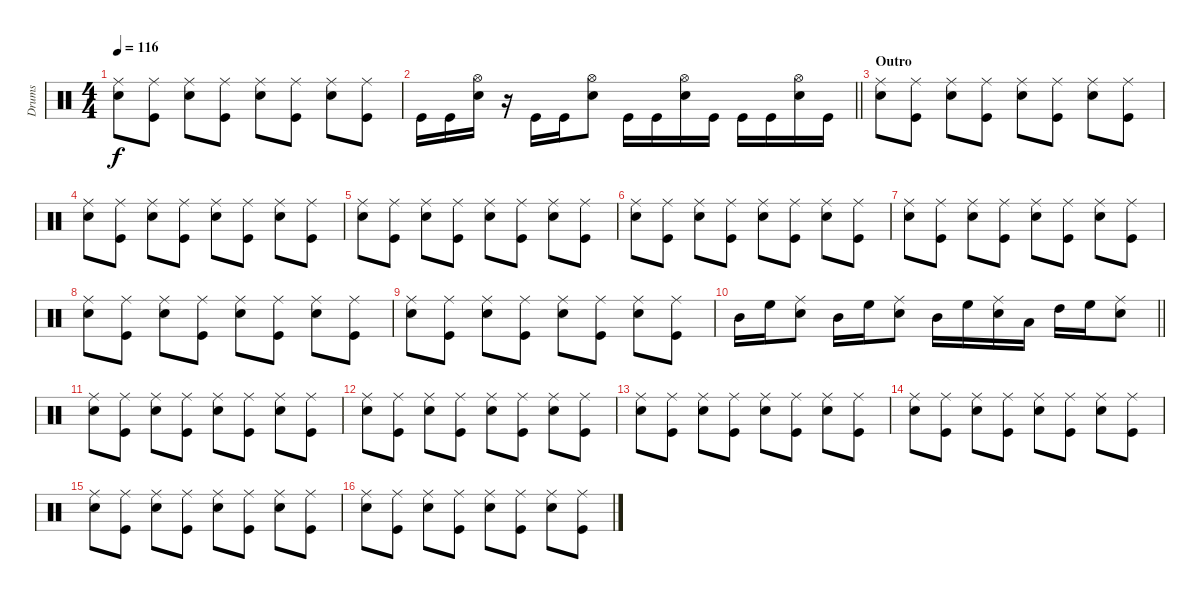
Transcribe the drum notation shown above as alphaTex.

\track ("Drums" "Drums") {instrument percussion}
\staff {score}
\articulation defaults
\ts (4 4)
\tempo 116
\clef neutral
\ks c
("Ride (middle)" "Snare (hit) 2").8{dy f} ("Ride (middle)" "Kick (hit)").8 ("Ride (middle)" "Snare (hit) 2").8 ("Ride (middle)" "Kick (hit)").8 ("Ride (middle)" "Snare (hit) 2").8 ("Ride (middle)" "Kick (hit)").8 ("Ride (middle)" "Snare (hit) 2").8 ("Ride (middle)" "Kick (hit)").8 |
\barLineRight lightlight "Kick (hit)".16 "Kick (hit)".16
("Hi-Hat (open)" "Snare (hit) 2").16 r.16 "Kick (hit)".16 "Kick (hit)".16 ("Hi-Hat (open)" "Snare (hit) 2").8 "Kick (hit)".16 "Kick (hit)".16 ("Hi-Hat (open)" "Snare (hit) 2").16 "Kick (hit)".16 "Kick (hit)".16 "Kick (hit)".16 ("Hi-Hat (open)" "Snare (hit) 2").16 "Kick (hit)".16 |
\section ("" "Outro")
("Ride (middle)" "Snare (hit) 2").8 ("Ride (middle)" "Kick (hit)").8 ("Ride (middle)" "Snare (hit) 2").8 ("Ride (middle)" "Kick (hit)").8 ("Ride (middle)" "Snare (hit) 2").8 ("Ride (middle)" "Kick (hit)").8 ("Ride (middle)" "Snare (hit) 2").8 ("Ride (middle)" "Kick (hit)").8 |
("Ride (middle)" "Snare (hit) 2").8 ("Ride (middle)" "Kick (hit)").8 ("Ride (middle)" "Snare (hit) 2").8 ("Ride (middle)" "Kick (hit)").8 ("Ride (middle)" "Snare (hit) 2").8 ("Ride (middle)" "Kick (hit)").8 ("Ride (middle)" "Snare (hit) 2").8 ("Ride (middle)" "Kick (hit)").8 |
("Ride (middle)" "Snare (hit) 2").8 ("Ride (middle)" "Kick (hit)").8 ("Ride (middle)" "Snare (hit) 2").8 ("Ride (middle)" "Kick (hit)").8 ("Ride (middle)" "Snare (hit) 2").8 ("Ride (middle)" "Kick (hit)").8 ("Ride (middle)" "Snare (hit) 2").8 ("Ride (middle)" "Kick (hit)").8 |
("Ride (middle)" "Snare (hit) 2").8 ("Ride (middle)" "Kick (hit)").8 ("Ride (middle)" "Snare (hit) 2").8 ("Ride (middle)" "Kick (hit)").8 ("Ride (middle)" "Snare (hit) 2").8 ("Ride (middle)" "Kick (hit)").8 ("Ride (middle)" "Snare (hit) 2").8 ("Ride (middle)" "Kick (hit)").8 |
("Ride (middle)" "Snare (hit) 2").8 ("Ride (middle)" "Kick (hit)").8 ("Ride (middle)" "Snare (hit) 2").8 ("Ride (middle)" "Kick (hit)").8 ("Ride (middle)" "Snare (hit) 2").8 ("Ride (middle)" "Kick (hit)").8 ("Ride (middle)" "Snare (hit) 2").8 ("Ride (middle)" "Kick (hit)").8 |
("Ride (middle)" "Snare (hit) 2").8 ("Ride (middle)" "Kick (hit)").8 ("Ride (middle)" "Snare (hit) 2").8 ("Ride (middle)" "Kick (hit)").8 ("Ride (middle)" "Snare (hit) 2").8 ("Ride (middle)" "Kick (hit)").8 ("Ride (middle)" "Snare (hit) 2").8 ("Ride (middle)" "Kick (hit)").8 |
("Ride (middle)" "Snare (hit) 2").8 ("Ride (middle)" "Kick (hit)").8 ("Ride (middle)" "Snare (hit) 2").8 ("Ride (middle)" "Kick (hit)").8 ("Ride (middle)" "Snare (hit) 2").8 ("Ride (middle)" "Kick (hit)").8 ("Ride (middle)" "Snare (hit) 2").8 ("Ride (middle)" "Kick (hit)").8 |
\barLineRight lightlight "Mid Tom (hit)".16 "High Floor Tom (hit)".16
("Ride (middle)" "Snare (hit) 2").8 "Mid Tom (hit)".16 "High Floor Tom (hit)".16 ("Ride (middle)" "Snare (hit) 2").8 "Mid Tom (hit)".16 "High Floor Tom (hit)".16 ("Ride (middle)" "Snare (hit) 2").16 "Low Tom (hit)".16 "High Tom (hit)".16 "High Floor Tom (hit)".16 ("Ride (middle)" "Snare (hit) 2").8 |
("Ride (middle)" "Snare (hit) 2").8 ("Ride (middle)" "Kick (hit)").8 ("Ride (middle)" "Snare (hit) 2").8 ("Ride (middle)" "Kick (hit)").8 ("Ride (middle)" "Snare (hit) 2").8 ("Ride (middle)" "Kick (hit)").8 ("Ride (middle)" "Snare (hit) 2").8 ("Ride (middle)" "Kick (hit)").8 |
("Ride (middle)" "Snare (hit) 2").8 ("Ride (middle)" "Kick (hit)").8 ("Ride (middle)" "Snare (hit) 2").8 ("Ride (middle)" "Kick (hit)").8 ("Ride (middle)" "Snare (hit) 2").8 ("Ride (middle)" "Kick (hit)").8 ("Ride (middle)" "Snare (hit) 2").8 ("Ride (middle)" "Kick (hit)").8 |
("Ride (middle)" "Snare (hit) 2").8 ("Ride (middle)" "Kick (hit)").8 ("Ride (middle)" "Snare (hit) 2").8 ("Ride (middle)" "Kick (hit)").8 ("Ride (middle)" "Snare (hit) 2").8 ("Ride (middle)" "Kick (hit)").8 ("Ride (middle)" "Snare (hit) 2").8 ("Ride (middle)" "Kick (hit)").8 |
("Ride (middle)" "Snare (hit) 2").8 ("Ride (middle)" "Kick (hit)").8 ("Ride (middle)" "Snare (hit) 2").8 ("Ride (middle)" "Kick (hit)").8 ("Ride (middle)" "Snare (hit) 2").8 ("Ride (middle)" "Kick (hit)").8 ("Ride (middle)" "Snare (hit) 2").8 ("Ride (middle)" "Kick (hit)").8 |
("Ride (middle)" "Snare (hit) 2").8 ("Ride (middle)" "Kick (hit)").8 ("Ride (middle)" "Snare (hit) 2").8 ("Ride (middle)" "Kick (hit)").8 ("Ride (middle)" "Snare (hit) 2").8 ("Ride (middle)" "Kick (hit)").8 ("Ride (middle)" "Snare (hit) 2").8 ("Ride (middle)" "Kick (hit)").8 |
("Ride (middle)" "Snare (hit) 2").8 ("Ride (middle)" "Kick (hit)").8 ("Ride (middle)" "Snare (hit) 2").8 ("Ride (middle)" "Kick (hit)").8 ("Ride (middle)" "Snare (hit) 2").8 ("Ride (middle)" "Kick (hit)").8 ("Ride (middle)" "Snare (hit) 2").8 ("Ride (middle)" "Kick (hit)").8
